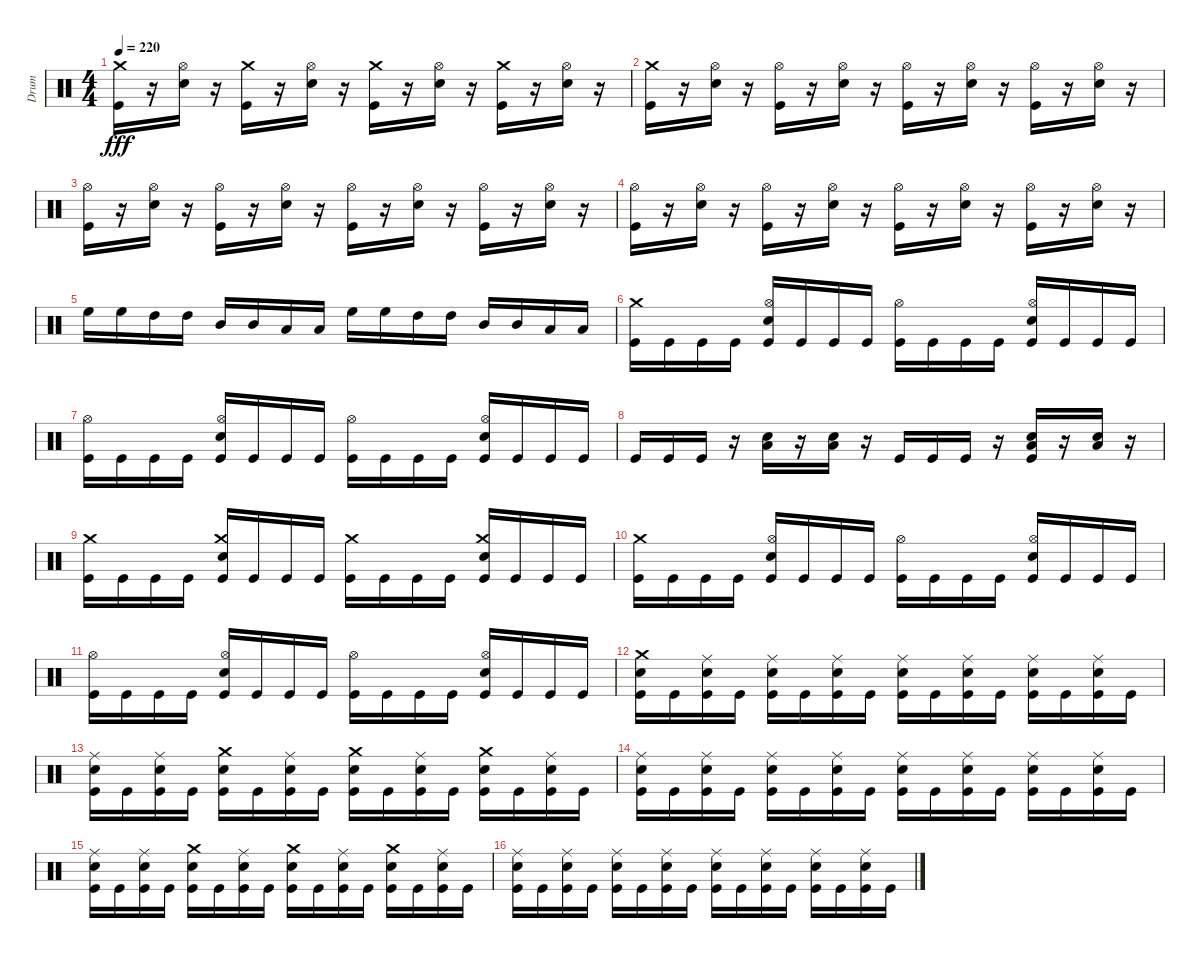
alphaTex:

\track ("Drum" "Drum") {instrument percussion}
\staff {score}
\articulation defaults
\ts (4 4)
\tempo 220
\clef neutral
\ks c
("Kick (hit)" "Crash medium (hit)").16{dy fff} r.16 ("Hi-Hat (open)" "Snare (hit) 2").16 r.16 ("Kick (hit)" "Crash medium (hit)").16 r.16 ("Hi-Hat (open)" "Snare (hit) 2").16 r.16 ("Kick (hit)" "Crash medium (hit)").16 r.16 ("Hi-Hat (open)" "Snare (hit) 2").16 r.16 ("Crash medium (hit)" "Kick (hit)").16 r.16 ("Hi-Hat (open)" "Snare (hit) 2").16 r.16 |
("Kick (hit)" "Crash medium (hit)").16 r.16 ("Snare (hit) 2" "Hi-Hat (open)").16 r.16 ("Kick (hit)" "Hi-Hat (open)").16 r.16 ("Hi-Hat (open)" "Snare (hit) 2").16 r.16 ("Hi-Hat (open)" "Kick (hit)").16 r.16 ("Hi-Hat (open)" "Snare (hit) 2").16 r.16 ("Kick (hit)" "Hi-Hat (open)").16 r.16 ("Snare (hit) 2" "Hi-Hat (open)").16 r.16 |
("Kick (hit)" "Hi-Hat (open)").16 r.16 ("Hi-Hat (open)" "Snare (hit) 2").16 r.16 ("Hi-Hat (open)" "Kick (hit)").16 r.16 ("Hi-Hat (open)" "Snare (hit) 2").16 r.16 ("Kick (hit)" "Hi-Hat (open)").16 r.16 ("Hi-Hat (open)" "Snare (hit) 2").16 r.16 ("Hi-Hat (open)" "Kick (hit)").16 r.16 ("Hi-Hat (open)" "Snare (hit) 2").16 r.16 |
("Kick (hit)" "Hi-Hat (open)").16 r.16 ("Hi-Hat (open)" "Snare (hit) 2").16 r.16 ("Hi-Hat (open)" "Kick (hit)").16 r.16 ("Snare (hit) 2" "Hi-Hat (open)").16 r.16 ("Kick (hit)" "Hi-Hat (open)").16 r.16 ("Snare (hit) 2" "Hi-Hat (open)").16 r.16 ("Kick (hit)" "Hi-Hat (open)").16 r.16 ("Snare (hit) 2" "Hi-Hat (open)").16 r.16 |
"High Floor Tom (hit)".16 "High Floor Tom (hit)".16 "High Tom (hit)".16 "High Tom (hit)".16 "Mid Tom (hit)".16 "Mid Tom (hit)".16 "Low Tom (hit)".16 "Low Tom (hit)".16 "High Floor Tom (hit)".16 "High Floor Tom (hit)".16 "High Tom (hit)".16 "High Tom (hit)".16 "Mid Tom (hit)".16 "Mid Tom (hit)".16 "Low Tom (hit)".16 "Low Tom (hit)".16 |
("Crash medium (hit)" "Kick (hit)").16 "Kick (hit)".16 "Kick (hit)".16 "Kick (hit)".16 ("Kick (hit)" "Hi-Hat (open)" "Snare (hit) 2").16 "Kick (hit)".16 "Kick (hit)".16 "Kick (hit)".16 ("Hi-Hat (open)" "Kick (hit)").16 "Kick (hit)".16 "Kick (hit)".16 "Kick (hit)".16 ("Snare (hit) 2" "Kick (hit)" "Hi-Hat (open)").16 "Kick (hit)".16 "Kick (hit)".16 "Kick (hit)".16 |
("Kick (hit)" "Hi-Hat (open)").16 "Kick (hit)".16 "Kick (hit)".16 "Kick (hit)".16 ("Snare (hit) 2" "Kick (hit)" "Hi-Hat (open)").16 "Kick (hit)".16 "Kick (hit)".16 "Kick (hit)".16 ("Hi-Hat (open)" "Kick (hit)").16 "Kick (hit)".16 "Kick (hit)".16 "Kick (hit)".16 ("Hi-Hat (open)" "Kick (hit)" "Snare (hit) 2").16 "Kick (hit)".16 "Kick (hit)".16 "Kick (hit)".16 |
"Kick (hit)".16 "Kick (hit)".16 "Kick (hit)".16 r.16 ("Low Tom (hit)" "Snare (hit) 2").16 r.16 ("Snare (hit) 2" "Low Tom (hit)").16 r.16 "Kick (hit)".16 "Kick (hit)".16 "Kick (hit)".16 r.16 ("Low Tom (hit)" "Kick (hit)" "Snare (hit) 2").16 r.16 ("Snare (hit) 2" "Low Tom (hit)").16 r.16 |
("Kick (hit)" "Crash medium (hit)").16 "Kick (hit)".16 "Kick (hit)".16 "Kick (hit)".16 ("Snare (hit) 2" "Crash medium (hit)" "Kick (hit)").16 "Kick (hit)".16 "Kick (hit)".16 "Kick (hit)".16 ("Crash medium (hit)" "Kick (hit)").16 "Kick (hit)".16 "Kick (hit)".16 "Kick (hit)".16 ("Kick (hit)" "Crash medium (hit)" "Snare (hit) 2").16 "Kick (hit)".16 "Kick (hit)".16 "Kick (hit)".16 |
("Crash medium (hit)" "Kick (hit)").16 "Kick (hit)".16 "Kick (hit)".16 "Kick (hit)".16 ("Hi-Hat (open)" "Snare (hit) 2" "Kick (hit)").16 "Kick (hit)".16 "Kick (hit)".16 "Kick (hit)".16 ("Kick (hit)" "Hi-Hat (open)").16 "Kick (hit)".16 "Kick (hit)".16 "Kick (hit)".16 ("Hi-Hat (open)" "Kick (hit)" "Snare (hit) 2").16 "Kick (hit)".16 "Kick (hit)".16 "Kick (hit)".16 |
("Hi-Hat (open)" "Kick (hit)").16 "Kick (hit)".16 "Kick (hit)".16 "Kick (hit)".16 ("Kick (hit)" "Snare (hit) 2" "Hi-Hat (open)").16 "Kick (hit)".16 "Kick (hit)".16 "Kick (hit)".16 ("Hi-Hat (open)" "Kick (hit)").16 "Kick (hit)".16 "Kick (hit)".16 "Kick (hit)".16 ("Snare (hit) 2" "Hi-Hat (open)" "Kick (hit)").16 "Kick (hit)".16 "Kick (hit)".16 "Kick (hit)".16 |
("Crash medium (hit)" "Kick (hit)" "Snare (hit) 2").16 "Kick (hit)".16 ("Kick (hit)" "Ride (middle)" "Snare (hit) 2").16 "Kick (hit)".16 ("Ride (middle)" "Kick (hit)" "Snare (hit) 2").16 "Kick (hit)".16 ("Ride (middle)" "Kick (hit)" "Snare (hit) 2").16 "Kick (hit)".16 ("Ride (middle)" "Kick (hit)" "Snare (hit) 2").16 "Kick (hit)".16 ("Snare (hit) 2" "Ride (middle)" "Kick (hit)").16 "Kick (hit)".16 ("Ride (middle)" "Kick (hit)" "Snare (hit) 2").16 "Kick (hit)".16 ("Ride (middle)" "Snare (hit) 2" "Kick (hit)").16 "Kick (hit)".16 |
("Kick (hit)" "Snare (hit) 2" "Ride (middle)").16 "Kick (hit)".16 ("Kick (hit)" "Snare (hit) 2" "Ride (middle)").16 "Kick (hit)".16 ("Kick (hit)" "Snare (hit) 2" "Crash medium (hit)").16 "Kick (hit)".16 ("Snare (hit) 2" "Kick (hit)" "Ride (middle)").16 "Kick (hit)".16 ("Crash medium (hit)" "Kick (hit)" "Snare (hit) 2").16 "Kick (hit)".16 ("Ride (middle)" "Kick (hit)" "Snare (hit) 2").16 "Kick (hit)".16 ("Kick (hit)" "Crash medium (hit)" "Snare (hit) 2").16 "Kick (hit)".16 ("Ride (middle)" "Kick (hit)" "Snare (hit) 2").16 "Kick (hit)".16 |
("Kick (hit)" "Ride (middle)" "Snare (hit) 2").16 "Kick (hit)".16 ("Ride (middle)" "Snare (hit) 2" "Kick (hit)").16 "Kick (hit)".16 ("Kick (hit)" "Ride (middle)" "Snare (hit) 2").16 "Kick (hit)".16 ("Ride (middle)" "Snare (hit) 2" "Kick (hit)").16 "Kick (hit)".16 ("Snare (hit) 2" "Ride (middle)" "Kick (hit)").16 "Kick (hit)".16 ("Snare (hit) 2" "Ride (middle)" "Kick (hit)").16 "Kick (hit)".16 ("Ride (middle)" "Kick (hit)" "Snare (hit) 2").16 "Kick (hit)".16 ("Snare (hit) 2" "Kick (hit)" "Ride (middle)").16 "Kick (hit)".16 |
("Ride (middle)" "Kick (hit)" "Snare (hit) 2").16 "Kick (hit)".16 ("Kick (hit)" "Snare (hit) 2" "Ride (middle)").16 "Kick (hit)".16 ("Snare (hit) 2" "Kick (hit)" "Crash medium (hit)").16 "Kick (hit)".16 ("Ride (middle)" "Snare (hit) 2" "Kick (hit)").16 "Kick (hit)".16 ("Crash medium (hit)" "Snare (hit) 2" "Kick (hit)").16 "Kick (hit)".16 ("Snare (hit) 2" "Ride (middle)" "Kick (hit)").16 "Kick (hit)".16 ("Crash medium (hit)" "Kick (hit)" "Snare (hit) 2").16 "Kick (hit)".16 ("Ride (middle)" "Kick (hit)" "Snare (hit) 2").16 "Kick (hit)".16 |
("Snare (hit) 2" "Ride (middle)" "Kick (hit)").16 "Kick (hit)".16 ("Ride (middle)" "Kick (hit)" "Snare (hit) 2").16 "Kick (hit)".16 ("Ride (middle)" "Kick (hit)" "Snare (hit) 2").16 "Kick (hit)".16 ("Kick (hit)" "Ride (middle)" "Snare (hit) 2").16 "Kick (hit)".16 ("Snare (hit) 2" "Kick (hit)" "Ride (middle)").16 "Kick (hit)".16 ("Kick (hit)" "Snare (hit) 2" "Ride (middle)").16 "Kick (hit)".16 ("Ride (middle)" "Kick (hit)" "Snare (hit) 2").16 "Kick (hit)".16 ("Kick (hit)" "Snare (hit) 2" "Ride (middle)").16 "Kick (hit)".16
